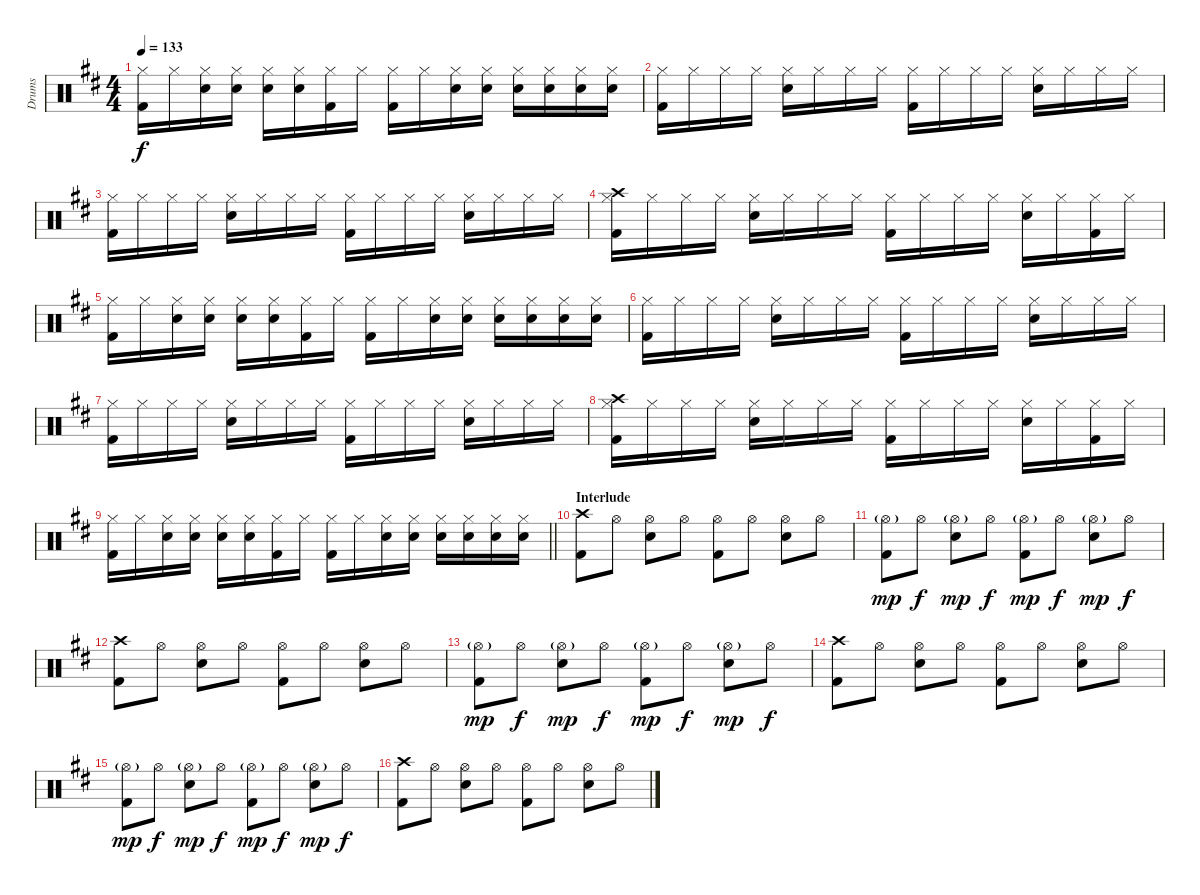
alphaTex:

\track ("Drums" "Drums") {instrument percussion}
\staff {score}
\articulation defaults
\ts (4 4)
\tempo 133
\clef neutral
\ks d
("Hi-Hat (closed)" "Kick (hit) 2").16{dy f} "Hi-Hat (closed)".16 ("Hi-Hat (closed)" "Snare (hit) 2").16 ("Hi-Hat (closed)" "Snare (hit) 2").16 ("Hi-Hat (closed)" "Snare (hit) 2").16 ("Hi-Hat (closed)" "Snare (hit) 2").16 ("Hi-Hat (closed)" "Kick (hit) 2").16 "Hi-Hat (closed)".16 ("Hi-Hat (closed)" "Kick (hit) 2").16 "Hi-Hat (closed)".16 ("Hi-Hat (closed)" "Snare (hit) 2").16 ("Hi-Hat (closed)" "Snare (hit) 2").16 ("Hi-Hat (closed)" "Snare (hit) 2").16 ("Hi-Hat (closed)" "Snare (hit) 2").16 ("Hi-Hat (closed)" "Snare (hit) 2").16 ("Hi-Hat (closed)" "Snare (hit) 2").16 |
("Hi-Hat (closed)" "Kick (hit) 2").16 "Hi-Hat (closed)".16 "Hi-Hat (closed)".16 "Hi-Hat (closed)".16 ("Hi-Hat (closed)" "Snare (hit) 2").16 "Hi-Hat (closed)".16 "Hi-Hat (closed)".16 "Hi-Hat (closed)".16 ("Hi-Hat (closed)" "Kick (hit) 2").16 "Hi-Hat (closed)".16 "Hi-Hat (closed)".16 "Hi-Hat (closed)".16 ("Hi-Hat (closed)" "Snare (hit) 2").16 "Hi-Hat (closed)".16 "Hi-Hat (closed)".16 "Hi-Hat (closed)".16 |
("Hi-Hat (closed)" "Kick (hit) 2").16 "Hi-Hat (closed)".16 "Hi-Hat (closed)".16 "Hi-Hat (closed)".16 ("Hi-Hat (closed)" "Snare (hit) 2").16 "Hi-Hat (closed)".16 "Hi-Hat (closed)".16 "Hi-Hat (closed)".16 ("Hi-Hat (closed)" "Kick (hit) 2").16 "Hi-Hat (closed)".16 "Hi-Hat (closed)".16 "Hi-Hat (closed)".16 ("Hi-Hat (closed)" "Snare (hit) 2").16 "Hi-Hat (closed)".16 "Hi-Hat (closed)".16 "Hi-Hat (closed)".16 |
("Crash high (hit)" "Hi-Hat (closed)" "Kick (hit) 2").16 "Hi-Hat (closed)".16 "Hi-Hat (closed)".16 "Hi-Hat (closed)".16 ("Hi-Hat (closed)" "Snare (hit) 2").16 "Hi-Hat (closed)".16 "Hi-Hat (closed)".16 "Hi-Hat (closed)".16 ("Hi-Hat (closed)" "Kick (hit) 2").16 "Hi-Hat (closed)".16 "Hi-Hat (closed)".16 "Hi-Hat (closed)".16 ("Hi-Hat (closed)" "Snare (hit) 2").16 "Hi-Hat (closed)".16 ("Hi-Hat (closed)" "Kick (hit) 2").16 "Hi-Hat (closed)".16 |
("Hi-Hat (closed)" "Kick (hit) 2").16 "Hi-Hat (closed)".16 ("Hi-Hat (closed)" "Snare (hit) 2").16 ("Hi-Hat (closed)" "Snare (hit) 2").16 ("Hi-Hat (closed)" "Snare (hit) 2").16 ("Hi-Hat (closed)" "Snare (hit) 2").16 ("Hi-Hat (closed)" "Kick (hit) 2").16 "Hi-Hat (closed)".16 ("Hi-Hat (closed)" "Kick (hit) 2").16 "Hi-Hat (closed)".16 ("Hi-Hat (closed)" "Snare (hit) 2").16 ("Hi-Hat (closed)" "Snare (hit) 2").16 ("Hi-Hat (closed)" "Snare (hit) 2").16 ("Hi-Hat (closed)" "Snare (hit) 2").16 ("Hi-Hat (closed)" "Snare (hit) 2").16 ("Hi-Hat (closed)" "Snare (hit) 2").16 |
("Hi-Hat (closed)" "Kick (hit) 2").16 "Hi-Hat (closed)".16 "Hi-Hat (closed)".16 "Hi-Hat (closed)".16 ("Hi-Hat (closed)" "Snare (hit) 2").16 "Hi-Hat (closed)".16 "Hi-Hat (closed)".16 "Hi-Hat (closed)".16 ("Hi-Hat (closed)" "Kick (hit) 2").16 "Hi-Hat (closed)".16 "Hi-Hat (closed)".16 "Hi-Hat (closed)".16 ("Hi-Hat (closed)" "Snare (hit) 2").16 "Hi-Hat (closed)".16 "Hi-Hat (closed)".16 "Hi-Hat (closed)".16 |
("Hi-Hat (closed)" "Kick (hit) 2").16 "Hi-Hat (closed)".16 "Hi-Hat (closed)".16 "Hi-Hat (closed)".16 ("Hi-Hat (closed)" "Snare (hit) 2").16 "Hi-Hat (closed)".16 "Hi-Hat (closed)".16 "Hi-Hat (closed)".16 ("Hi-Hat (closed)" "Kick (hit) 2").16 "Hi-Hat (closed)".16 "Hi-Hat (closed)".16 "Hi-Hat (closed)".16 ("Hi-Hat (closed)" "Snare (hit) 2").16 "Hi-Hat (closed)".16 "Hi-Hat (closed)".16 "Hi-Hat (closed)".16 |
("Crash high (hit)" "Hi-Hat (closed)" "Kick (hit) 2").16 "Hi-Hat (closed)".16 "Hi-Hat (closed)".16 "Hi-Hat (closed)".16 ("Hi-Hat (closed)" "Snare (hit) 2").16 "Hi-Hat (closed)".16 "Hi-Hat (closed)".16 "Hi-Hat (closed)".16 ("Hi-Hat (closed)" "Kick (hit) 2").16 "Hi-Hat (closed)".16 "Hi-Hat (closed)".16 "Hi-Hat (closed)".16 ("Hi-Hat (closed)" "Snare (hit) 2").16 "Hi-Hat (closed)".16 ("Hi-Hat (closed)" "Kick (hit) 2").16 "Hi-Hat (closed)".16 |
\barLineRight lightlight
("Hi-Hat (closed)" "Kick (hit) 2").16 "Hi-Hat (closed)".16 ("Hi-Hat (closed)" "Snare (hit) 2").16 ("Hi-Hat (closed)" "Snare (hit) 2").16 ("Hi-Hat (closed)" "Snare (hit) 2").16 ("Hi-Hat (closed)" "Snare (hit) 2").16 ("Hi-Hat (closed)" "Kick (hit) 2").16 "Hi-Hat (closed)".16 ("Hi-Hat (closed)" "Kick (hit) 2").16 "Hi-Hat (closed)".16 ("Hi-Hat (closed)" "Snare (hit) 2").16 ("Hi-Hat (closed)" "Snare (hit) 2").16 ("Hi-Hat (closed)" "Snare (hit) 2").16 ("Hi-Hat (closed)" "Snare (hit) 2").16 ("Hi-Hat (closed)" "Snare (hit) 2").16 ("Hi-Hat (closed)" "Snare (hit) 2").16 |
\section ("" "Interlude")
("Crash high (hit)" "Kick (hit) 2").8 "Hi-Hat (open)".8 ("Hi-Hat (open)" "Snare (hit) 2").8 "Hi-Hat (open)".8 ("Hi-Hat (open)" "Kick (hit) 2").8 "Hi-Hat (open)".8 ("Hi-Hat (open)" "Snare (hit) 2").8 "Hi-Hat (open)".8 |
("Hi-Hat (open)"{g} "Kick (hit) 2").8{dy mp} "Hi-Hat (open)".8{dy f} ("Hi-Hat (open)"{g} "Snare (hit) 2").8{dy mp} "Hi-Hat (open)".8{dy f} ("Hi-Hat (open)"{g} "Kick (hit) 2").8{dy mp} "Hi-Hat (open)".8{dy f} ("Hi-Hat (open)"{g} "Snare (hit) 2").8{dy mp} "Hi-Hat (open)".8{dy f} |
("Crash high (hit)" "Kick (hit) 2").8 "Hi-Hat (open)".8 ("Hi-Hat (open)" "Snare (hit) 2").8 "Hi-Hat (open)".8 ("Hi-Hat (open)" "Kick (hit) 2").8 "Hi-Hat (open)".8 ("Hi-Hat (open)" "Snare (hit) 2").8 "Hi-Hat (open)".8 |
("Hi-Hat (open)"{g} "Kick (hit) 2").8{dy mp} "Hi-Hat (open)".8{dy f} ("Hi-Hat (open)"{g} "Snare (hit) 2").8{dy mp} "Hi-Hat (open)".8{dy f} ("Hi-Hat (open)"{g} "Kick (hit) 2").8{dy mp} "Hi-Hat (open)".8{dy f} ("Hi-Hat (open)"{g} "Snare (hit) 2").8{dy mp} "Hi-Hat (open)".8{dy f} |
("Crash high (hit)" "Kick (hit) 2").8 "Hi-Hat (open)".8 ("Hi-Hat (open)" "Snare (hit) 2").8 "Hi-Hat (open)".8 ("Hi-Hat (open)" "Kick (hit) 2").8 "Hi-Hat (open)".8 ("Hi-Hat (open)" "Snare (hit) 2").8 "Hi-Hat (open)".8 |
("Hi-Hat (open)"{g} "Kick (hit) 2").8{dy mp} "Hi-Hat (open)".8{dy f} ("Hi-Hat (open)"{g} "Snare (hit) 2").8{dy mp} "Hi-Hat (open)".8{dy f} ("Hi-Hat (open)"{g} "Kick (hit) 2").8{dy mp} "Hi-Hat (open)".8{dy f} ("Hi-Hat (open)"{g} "Snare (hit) 2").8{dy mp} "Hi-Hat (open)".8{dy f} |
("Crash high (hit)" "Kick (hit) 2").8 "Hi-Hat (open)".8 ("Hi-Hat (open)" "Snare (hit) 2").8 "Hi-Hat (open)".8 ("Hi-Hat (open)" "Kick (hit) 2").8 "Hi-Hat (open)".8 ("Hi-Hat (open)" "Snare (hit) 2").8 "Hi-Hat (open)".8
